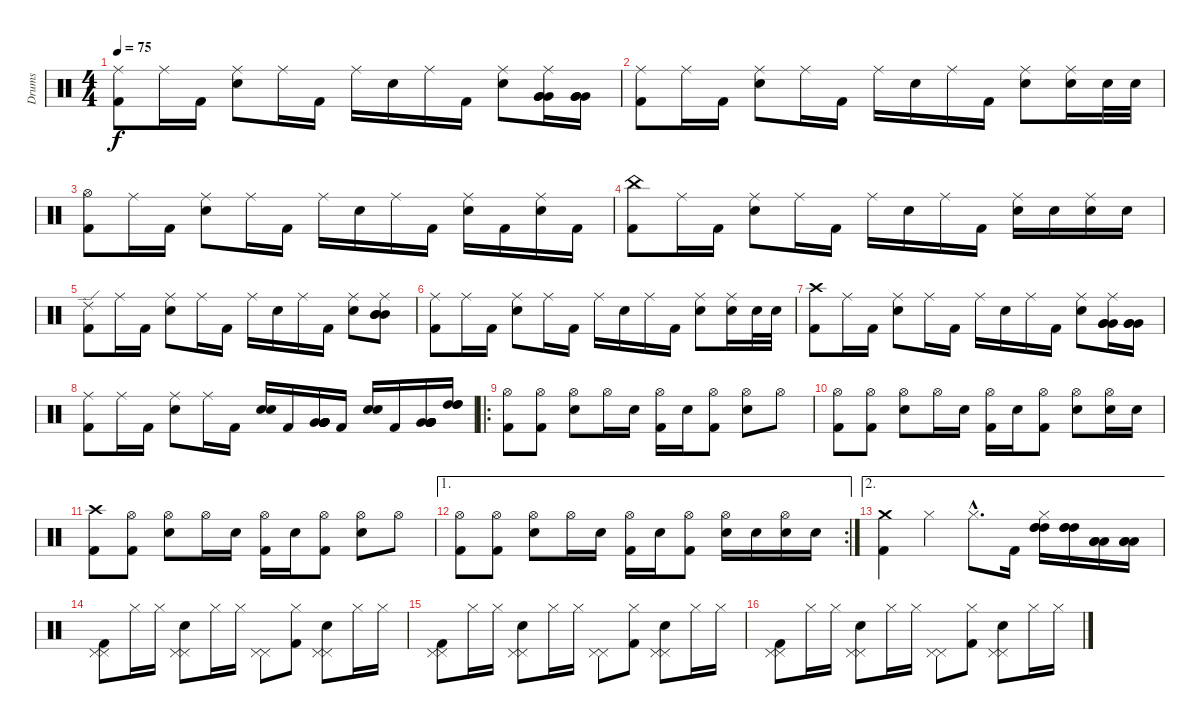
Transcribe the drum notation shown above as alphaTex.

\track ("Drums" "Drums") {instrument percussion}
\staff {score}
\articulation defaults
\ts (4 4)
\tempo 75
\clef neutral
\ks c
("Ride (middle)" "Kick (hit) 2").8{dy f} "Ride (middle)".16 "Kick (hit) 2".16 ("Ride (middle)" "Electric Snare (hit)").8 "Ride (middle)".16 "Kick (hit) 2".16 "Ride (middle)".16 "Electric Snare (hit)".16 "Ride (middle)".16 "Kick (hit) 2".16 ("Ride (middle)" "Electric Snare (hit)").8 ("Ride (middle)" "Very Low Tom (hit)" "Very Low Tom (hit)" "Very Low Tom (hit)").16 ("Very Low Tom (hit)" "Very Low Tom (hit)" "Very Low Tom (hit)").16 |
("Ride (middle)" "Kick (hit) 2").8 "Ride (middle)".16 "Kick (hit) 2".16 ("Ride (middle)" "Electric Snare (hit)").8 "Ride (middle)".16 "Kick (hit) 2".16 "Ride (middle)".16 "Electric Snare (hit)".16 "Ride (middle)".16 "Kick (hit) 2".16 ("Ride (middle)" "Electric Snare (hit)").8 ("Ride (middle)" "Electric Snare (hit)").16 "Electric Snare (hit)".32 "Electric Snare (hit)".32 |
("Hi-Hat (open)" "Kick (hit) 2").8 "Ride (middle)".16 "Kick (hit) 2".16 ("Ride (middle)" "Electric Snare (hit)").8 "Ride (middle)".16 "Kick (hit) 2".16 "Ride (middle)".16 "Electric Snare (hit)".16 "Ride (middle)".16 "Kick (hit) 2".16 ("Ride (middle)" "Electric Snare (hit)").16 "Kick (hit) 2".16 ("Ride (middle)" "Electric Snare (hit)").16 "Kick (hit) 2".16 |
("China (hit)" "Kick (hit) 2").8 "Ride (middle)".16 "Kick (hit) 2".16 ("Ride (middle)" "Electric Snare (hit)").8 "Ride (middle)".16 "Kick (hit) 2".16 "Ride (middle)".16 "Electric Snare (hit)".16 "Ride (middle)".16 "Kick (hit) 2".16 ("Ride (middle)" "Electric Snare (hit)").16 "Electric Snare (hit)".16 ("Ride (middle)" "Electric Snare (hit)").16 "Electric Snare (hit)".16 |
("Ride (edge) 2" "Kick (hit) 2").8 "Ride (middle)".16 "Kick (hit) 2".16 ("Ride (middle)" "Electric Snare (hit)").8 "Ride (middle)".16 "Kick (hit) 2".16 "Ride (middle)".16 "Electric Snare (hit)".16 "Ride (middle)".16 "Kick (hit) 2".16 ("Ride (middle)" "Electric Snare (hit)").8 ("Ride (middle)" "Mid Tom (hit)" "Mid Tom (hit)" "Mid Tom (hit)").8 |
("Ride (middle)" "Kick (hit) 2").8 "Ride (middle)".16 "Kick (hit) 2".16 ("Ride (middle)" "Electric Snare (hit)").8 "Ride (middle)".16 "Kick (hit) 2".16 "Ride (middle)".16 "Electric Snare (hit)".16 "Ride (middle)".16 "Kick (hit) 2".16 ("Ride (middle)" "Electric Snare (hit)").8 ("Ride (middle)" "Electric Snare (hit)").16 "Electric Snare (hit)".32 "Electric Snare (hit)".32 |
("Crash high (hit)" "Kick (hit) 2").8 "Ride (middle)".16 "Kick (hit) 2".16 ("Ride (middle)" "Electric Snare (hit)").8 "Ride (middle)".16 "Kick (hit) 2".16 "Ride (middle)".16 "Electric Snare (hit)".16 "Ride (middle)".16 "Kick (hit) 2".16 ("Ride (middle)" "Electric Snare (hit)").8 ("Ride (middle)" "Very Low Tom (hit)" "Very Low Tom (hit)" "Very Low Tom (hit)").16 ("Very Low Tom (hit)" "Very Low Tom (hit)" "Very Low Tom (hit)").16 |
("Ride (middle)" "Kick (hit) 2").8 "Ride (middle)".16 "Kick (hit) 2".16 ("Ride (middle)" "Electric Snare (hit)").8 "Ride (middle)".16 "Kick (hit) 2".16 ("Electric Snare (hit)" "Electric Snare (hit)").16 "Kick (hit) 2".16 ("Very Low Tom (hit)" "Very Low Tom (hit)" "Very Low Tom (hit)" "Very Low Tom (hit)" "Very Low Tom (hit)" "Very Low Tom (hit)").16 "Kick (hit) 2".16 ("Electric Snare (hit)" "Electric Snare (hit)").16 "Kick (hit) 2".16 ("Very Low Tom (hit)" "Very Low Tom (hit)" "Very Low Tom (hit)" "Very Low Tom (hit)" "Very Low Tom (hit)" "Very Low Tom (hit)").16 ("High Tom (hit)" "High Tom (hit)" "High Tom (hit)").16 |
\ro
("Hi-Hat (open)" "Kick (hit) 2").8 ("Hi-Hat (open)" "Kick (hit) 2").8 ("Hi-Hat (open)" "Electric Snare (hit)").8 "Hi-Hat (open)".16 "Electric Snare (hit)".16 ("Hi-Hat (open)" "Kick (hit) 2").16 "Electric Snare (hit)".16 ("Hi-Hat (open)" "Kick (hit) 2").8 ("Hi-Hat (open)" "Electric Snare (hit)").8 "Hi-Hat (open)".8 |
("Hi-Hat (open)" "Kick (hit) 2").8 ("Hi-Hat (open)" "Kick (hit) 2").8 ("Hi-Hat (open)" "Electric Snare (hit)").8 "Hi-Hat (open)".16 "Electric Snare (hit)".16 ("Hi-Hat (open)" "Kick (hit) 2").16 "Electric Snare (hit)".16 ("Hi-Hat (open)" "Kick (hit) 2").8 ("Hi-Hat (open)" "Electric Snare (hit)").8 ("Hi-Hat (open)" "Electric Snare (hit)").16 "Electric Snare (hit)".16 |
("Crash high (hit)" "Kick (hit) 2").8 ("Hi-Hat (open)" "Kick (hit) 2").8 ("Hi-Hat (open)" "Electric Snare (hit)").8 "Hi-Hat (open)".16 "Electric Snare (hit)".16 ("Hi-Hat (open)" "Kick (hit) 2").16 "Electric Snare (hit)".16 ("Hi-Hat (open)" "Kick (hit) 2").8 ("Hi-Hat (open)" "Electric Snare (hit)").8 "Hi-Hat (open)".8 |
\ae 1
\rc 2
("Hi-Hat (open)" "Kick (hit) 2").8 ("Hi-Hat (open)" "Kick (hit) 2").8 ("Hi-Hat (open)" "Electric Snare (hit)").8 "Hi-Hat (open)".16 "Electric Snare (hit)".16 ("Hi-Hat (open)" "Kick (hit) 2").16 "Electric Snare (hit)".16 ("Hi-Hat (open)" "Kick (hit) 2").8 ("Hi-Hat (open)" "Electric Snare (hit)").16 "Electric Snare (hit)".16 ("Hi-Hat (open)" "Electric Snare (hit)").16 "Electric Snare (hit)".16 |
\ae 2
("Crash medium (hit)" "Kick (hit) 2").4 "Hi-Hat (closed)".4 "Hi-Hat (closed)"{hac}.8{d} "Kick (hit) 2".16 ("Hi-Hat (closed)" "High Tom (hit)" "High Tom (hit)" "High Tom (hit)").16 ("High Tom (hit)" "High Tom (hit)" "High Tom (hit)").16 ("Low Tom (hit)" "Low Tom (hit)" "Low Tom (hit)").16 ("Low Tom (hit)" "Low Tom (hit)" "Low Tom (hit)").16 |
("Pedal Hi-Hat (hit)" "Pedal Hi-Hat (hit)" "Kick (hit) 2").8 "Hi-Hat (closed)".16 "Hi-Hat (closed)".16 ("Pedal Hi-Hat (hit)" "Pedal Hi-Hat (hit)" "Electric Snare (hit)").8 "Hi-Hat (closed)".16 "Hi-Hat (closed)".16 ("Pedal Hi-Hat (hit)" "Pedal Hi-Hat (hit)").8 ("Hi-Hat (closed)" "Kick (hit) 2").8 ("Pedal Hi-Hat (hit)" "Pedal Hi-Hat (hit)" "Electric Snare (hit)").8 "Hi-Hat (closed)".16 "Hi-Hat (closed)".16 |
("Pedal Hi-Hat (hit)" "Pedal Hi-Hat (hit)" "Kick (hit) 2").8 "Hi-Hat (closed)".16 "Hi-Hat (closed)".16 ("Pedal Hi-Hat (hit)" "Pedal Hi-Hat (hit)" "Electric Snare (hit)").8 "Hi-Hat (closed)".16 "Hi-Hat (closed)".16 ("Pedal Hi-Hat (hit)" "Pedal Hi-Hat (hit)").8 ("Hi-Hat (closed)" "Kick (hit) 2").8 ("Pedal Hi-Hat (hit)" "Pedal Hi-Hat (hit)" "Electric Snare (hit)").8 "Hi-Hat (closed)".16 "Hi-Hat (closed)".16 |
("Pedal Hi-Hat (hit)" "Pedal Hi-Hat (hit)" "Kick (hit) 2").8 "Hi-Hat (closed)".16 "Hi-Hat (closed)".16 ("Pedal Hi-Hat (hit)" "Pedal Hi-Hat (hit)" "Electric Snare (hit)").8 "Hi-Hat (closed)".16 "Hi-Hat (closed)".16 ("Pedal Hi-Hat (hit)" "Pedal Hi-Hat (hit)").8 ("Hi-Hat (closed)" "Kick (hit) 2").8 ("Pedal Hi-Hat (hit)" "Pedal Hi-Hat (hit)" "Electric Snare (hit)").8 "Hi-Hat (closed)".16 "Hi-Hat (closed)".16
